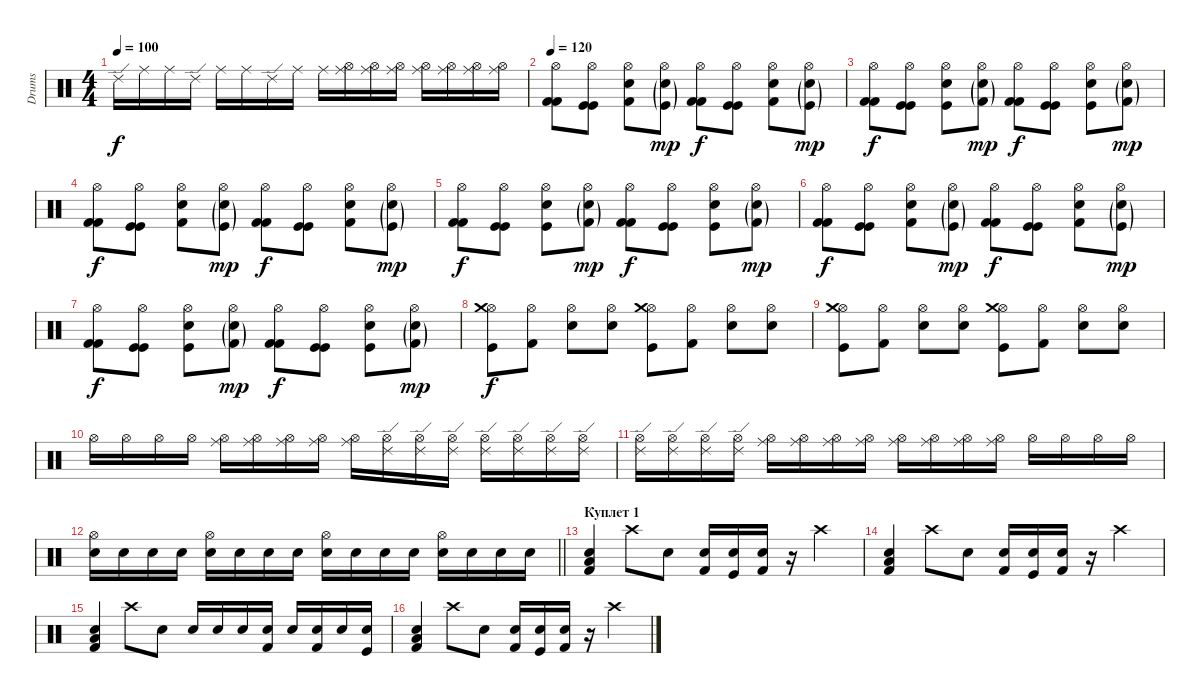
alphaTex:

\track ("Drums" "Drums") {instrument percussion}
\staff {score}
\articulation defaults
\ts (4 4)
\tempo 100
\clef neutral
\ks c "Ride (edge) 2".16{dy f} "Ride (middle)".16{volume 13} "Ride (middle)".16 "Ride (edge) 2".16 "Ride (middle)".16 "Ride (middle)".16 "Ride (edge) 2".16 "Ride (middle)".16 "Ride (middle)".16
("Hi-Hat (open)" "Ride (middle)").16 ("Hi-Hat (open)" "Ride (middle)").16 ("Hi-Hat (open)" "Ride (middle)").16 ("Hi-Hat (open)" "Ride (middle)").16 ("Hi-Hat (open)" "Ride (middle)").16 ("Hi-Hat (open)" "Ride (middle)").16 ("Hi-Hat (open)" "Ride (middle)").16 |
\tempo 120
("Hi-Hat (open)" "Kick (hit) 2" "Kick (hit) 2").8 ("Hi-Hat (open)" "Kick (hit)" "Kick (hit)").8 ("Hi-Hat (open)" "Snare (hit) 2" "Kick (hit) 2").8 ("Hi-Hat (open)" "Electric Snare (hit)"{g} "Kick (hit)"{g}).8{dy mp} ("Hi-Hat (open)" "Kick (hit) 2" "Kick (hit) 2").8{dy f} ("Hi-Hat (open)" "Kick (hit)" "Kick (hit)").8 ("Hi-Hat (open)" "Snare (hit) 2" "Kick (hit) 2").8 ("Hi-Hat (open)" "Electric Snare (hit)"{g} "Kick (hit)"{g}).8{dy mp} |
("Hi-Hat (open)" "Kick (hit) 2" "Kick (hit) 2").8{dy f} ("Hi-Hat (open)" "Kick (hit)" "Kick (hit)").8 ("Hi-Hat (open)" "Electric Snare (hit)" "Kick (hit)").8 ("Hi-Hat (open)" "Snare (hit) 2"{g} "Kick (hit) 2"{g}).8{dy mp} ("Hi-Hat (open)" "Kick (hit) 2" "Kick (hit) 2").8{dy f} ("Hi-Hat (open)" "Kick (hit)" "Kick (hit)").8 ("Hi-Hat (open)" "Electric Snare (hit)" "Kick (hit)").8 ("Hi-Hat (open)" "Snare (hit) 2"{g} "Kick (hit) 2"{g}).8{dy mp} |
("Hi-Hat (open)" "Kick (hit) 2" "Kick (hit) 2").8{dy f} ("Hi-Hat (open)" "Kick (hit)" "Kick (hit)").8 ("Hi-Hat (open)" "Snare (hit) 2" "Kick (hit) 2").8 ("Hi-Hat (open)" "Electric Snare (hit)"{g} "Kick (hit)"{g}).8{dy mp} ("Hi-Hat (open)" "Kick (hit) 2" "Kick (hit) 2").8{dy f} ("Hi-Hat (open)" "Kick (hit)" "Kick (hit)").8 ("Hi-Hat (open)" "Snare (hit) 2" "Kick (hit) 2").8 ("Hi-Hat (open)" "Electric Snare (hit)"{g} "Kick (hit)"{g}).8{dy mp} |
("Hi-Hat (open)" "Kick (hit) 2" "Kick (hit) 2").8{dy f} ("Hi-Hat (open)" "Kick (hit)" "Kick (hit)").8 ("Hi-Hat (open)" "Electric Snare (hit)" "Kick (hit)").8 ("Hi-Hat (open)" "Snare (hit) 2"{g} "Kick (hit) 2"{g}).8{dy mp} ("Hi-Hat (open)" "Kick (hit) 2" "Kick (hit) 2").8{dy f} ("Hi-Hat (open)" "Kick (hit)" "Kick (hit)").8 ("Hi-Hat (open)" "Electric Snare (hit)" "Kick (hit)").8 ("Hi-Hat (open)" "Snare (hit) 2"{g} "Kick (hit) 2"{g}).8{dy mp} |
("Hi-Hat (open)" "Kick (hit) 2" "Kick (hit) 2").8{dy f} ("Hi-Hat (open)" "Kick (hit)" "Kick (hit)").8 ("Hi-Hat (open)" "Snare (hit) 2" "Kick (hit) 2").8 ("Hi-Hat (open)" "Electric Snare (hit)"{g} "Kick (hit)"{g}).8{dy mp} ("Hi-Hat (open)" "Kick (hit) 2" "Kick (hit) 2").8{dy f} ("Hi-Hat (open)" "Kick (hit)" "Kick (hit)").8 ("Hi-Hat (open)" "Snare (hit) 2" "Kick (hit) 2").8 ("Hi-Hat (open)" "Electric Snare (hit)"{g} "Kick (hit)"{g}).8{dy mp} |
("Hi-Hat (open)" "Kick (hit) 2" "Kick (hit) 2").8{dy f} ("Hi-Hat (open)" "Kick (hit)" "Kick (hit)").8 ("Hi-Hat (open)" "Electric Snare (hit)" "Kick (hit)").8 ("Hi-Hat (open)" "Snare (hit) 2"{g} "Kick (hit) 2"{g}).8{dy mp} ("Hi-Hat (open)" "Kick (hit) 2" "Kick (hit) 2").8{dy f} ("Hi-Hat (open)" "Kick (hit)" "Kick (hit)").8 ("Hi-Hat (open)" "Electric Snare (hit)" "Kick (hit)").8 ("Hi-Hat (open)" "Snare (hit) 2"{g} "Kick (hit) 2"{g}).8{dy mp} |
("Hi-Hat (open)" "Crash medium (hit)" "Kick (hit)").8{dy f} ("Hi-Hat (open)" "Kick (hit) 2").8 ("Hi-Hat (open)" "Electric Snare (hit)").8 ("Hi-Hat (open)" "Snare (hit) 2").8 ("Hi-Hat (open)" "Crash medium (hit)" "Kick (hit)").8 ("Hi-Hat (open)" "Kick (hit) 2").8 ("Hi-Hat (open)" "Electric Snare (hit)").8 ("Hi-Hat (open)" "Snare (hit) 2").8 |
("Hi-Hat (open)" "Crash medium (hit)" "Kick (hit)").8 ("Hi-Hat (open)" "Kick (hit) 2").8 ("Hi-Hat (open)" "Electric Snare (hit)").8 ("Hi-Hat (open)" "Snare (hit) 2").8 ("Hi-Hat (open)" "Crash medium (hit)" "Kick (hit)").8 ("Hi-Hat (open)" "Kick (hit) 2").8 ("Hi-Hat (open)" "Electric Snare (hit)").8 ("Hi-Hat (open)" "Snare (hit) 2").8 |
"Hi-Hat (open)".16 "Hi-Hat (open)".16 "Hi-Hat (open)".16 "Hi-Hat (open)".16 ("Hi-Hat (open)" "Ride (middle)").16 ("Hi-Hat (open)" "Ride (middle)").16 ("Hi-Hat (open)" "Ride (middle)").16 ("Hi-Hat (open)" "Ride (middle)").16 ("Hi-Hat (open)" "Ride (middle)").16 ("Hi-Hat (open)" "Ride (edge) 2").16 ("Hi-Hat (open)" "Ride (edge) 2").16 ("Hi-Hat (open)" "Ride (edge) 2").16 ("Hi-Hat (open)" "Ride (edge) 2").16 ("Hi-Hat (open)" "Ride (edge) 2").16 ("Hi-Hat (open)" "Ride (edge) 2").16 ("Hi-Hat (open)" "Ride (edge) 2").16 |
("Hi-Hat (open)" "Ride (edge) 2").16 ("Hi-Hat (open)" "Ride (edge) 2").16 ("Hi-Hat (open)" "Ride (edge) 2").16 ("Hi-Hat (open)" "Ride (edge) 2").16 ("Hi-Hat (open)" "Ride (middle)").16 ("Hi-Hat (open)" "Ride (middle)").16 ("Hi-Hat (open)" "Ride (middle)").16 ("Hi-Hat (open)" "Ride (middle)").16 ("Hi-Hat (open)" "Ride (middle)").16 ("Hi-Hat (open)" "Ride (middle)").16 ("Hi-Hat (open)" "Ride (middle)").16 ("Hi-Hat (open)" "Ride (middle)").16 "Hi-Hat (open)".16 "Hi-Hat (open)".16 "Hi-Hat (open)".16 "Hi-Hat (open)".16 |
\barLineRight lightlight
("Hi-Hat (open)" "Electric Snare (hit)").16 "Electric Snare (hit)".16 "Electric Snare (hit)".16 "Electric Snare (hit)".16 ("Hi-Hat (open)" "Snare (hit) 2").16 "Electric Snare (hit)".16 "Electric Snare (hit)".16 "Electric Snare (hit)".16 ("Hi-Hat (open)" "Snare (hit) 2").16 "Electric Snare (hit)".16 "Electric Snare (hit)".16 "Electric Snare (hit)".16 ("Hi-Hat (open)" "Snare (hit) 2").16 "Electric Snare (hit)".16 "Electric Snare (hit)".16 "Electric Snare (hit)".16 |
\section ("" "Куплет 1")
("Electric Snare (hit)" "Low Floor Tom (hit)" "Kick (hit) 2").4 "Crash high (hit)".8 "Electric Snare (hit)".8 ("Snare (hit) 2" "Kick (hit) 2").16 ("Electric Snare (hit)" "Kick (hit)").16 ("Snare (hit) 2" "Kick (hit) 2").16 r.16 "Crash high (hit)".4 |
("Electric Snare (hit)" "Low Floor Tom (hit)" "Kick (hit) 2").4 "Crash high (hit)".8 "Electric Snare (hit)".8 ("Snare (hit) 2" "Kick (hit) 2").16 ("Electric Snare (hit)" "Kick (hit)").16 ("Snare (hit) 2" "Kick (hit) 2").16 r.16 "Crash high (hit)".4 |
("Electric Snare (hit)" "Low Floor Tom (hit)" "Kick (hit) 2").4 "Crash high (hit)".8 "Electric Snare (hit)".8 "Snare (hit) 2".16 "Electric Snare (hit)".16 "Snare (hit) 2".16 ("Electric Snare (hit)" "Kick (hit) 2").16 "Snare (hit) 2".16 ("Electric Snare (hit)" "Kick (hit) 2").16 "Snare (hit) 2".16 ("Electric Snare (hit)" "Kick (hit)").16 |
("Electric Snare (hit)" "Low Floor Tom (hit)" "Kick (hit) 2").4 "Crash high (hit)".8 "Electric Snare (hit)".8 ("Snare (hit) 2" "Kick (hit) 2").16 ("Electric Snare (hit)" "Kick (hit)").16 ("Snare (hit) 2" "Kick (hit) 2").16 r.16 "Crash high (hit)".4
